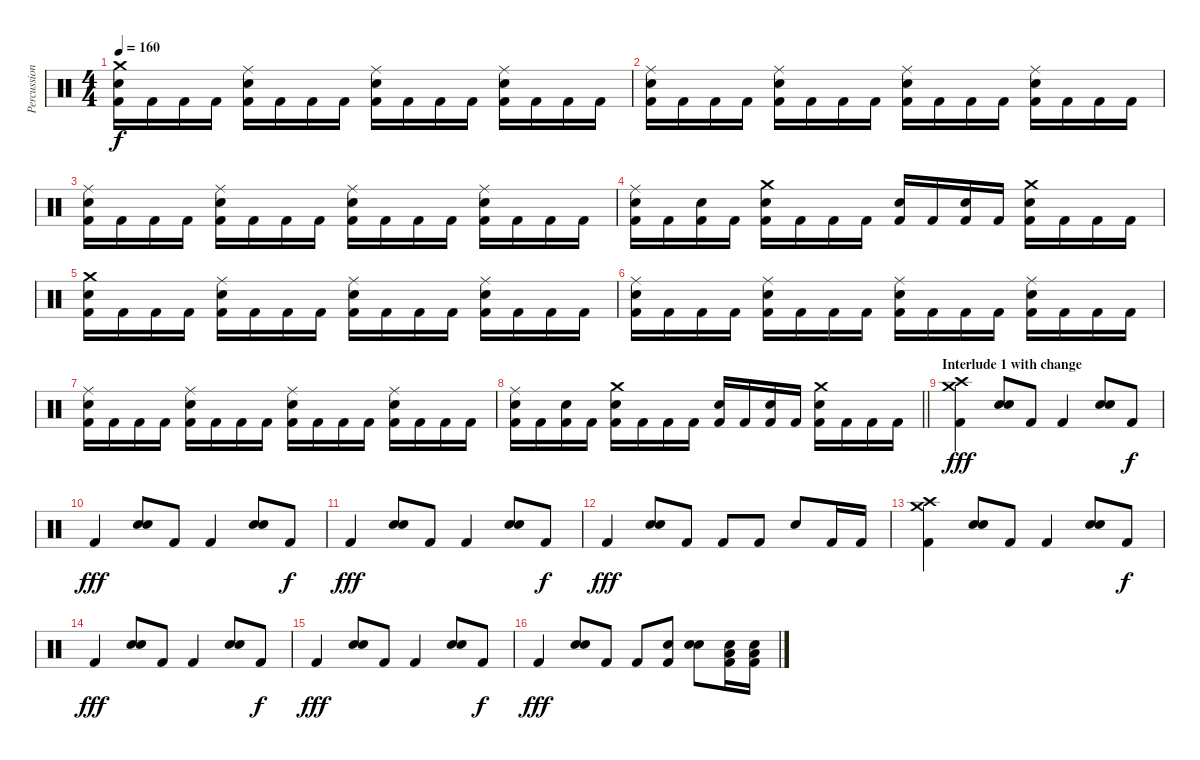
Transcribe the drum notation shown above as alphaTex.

\track ("Percussion" "Percussion") {instrument percussion}
\staff {score}
\articulation defaults
\ts (4 4)
\tempo 160
\clef neutral
\ks c
("Crash medium (hit)" "Snare (hit) 2" "Kick (hit) 2").16{dy f} "Kick (hit) 2".16 "Kick (hit) 2".16 "Kick (hit) 2".16 ("Ride (middle)" "Snare (hit) 2" "Kick (hit) 2").16 "Kick (hit) 2".16 "Kick (hit) 2".16 "Kick (hit) 2".16 ("Ride (middle)" "Snare (hit) 2" "Kick (hit) 2").16 "Kick (hit) 2".16 "Kick (hit) 2".16 "Kick (hit) 2".16 ("Ride (middle)" "Snare (hit) 2" "Kick (hit) 2").16 "Kick (hit) 2".16 "Kick (hit) 2".16 "Kick (hit) 2".16 |
("Ride (middle)" "Snare (hit) 2" "Kick (hit) 2").16 "Kick (hit) 2".16 "Kick (hit) 2".16 "Kick (hit) 2".16 ("Ride (middle)" "Snare (hit) 2" "Kick (hit) 2").16 "Kick (hit) 2".16 "Kick (hit) 2".16 "Kick (hit) 2".16 ("Ride (middle)" "Snare (hit) 2" "Kick (hit) 2").16 "Kick (hit) 2".16 "Kick (hit) 2".16 "Kick (hit) 2".16 ("Ride (middle)" "Snare (hit) 2" "Kick (hit) 2").16 "Kick (hit) 2".16 "Kick (hit) 2".16 "Kick (hit) 2".16 |
("Ride (middle)" "Snare (hit) 2" "Kick (hit) 2").16 "Kick (hit) 2".16 "Kick (hit) 2".16 "Kick (hit) 2".16 ("Ride (middle)" "Snare (hit) 2" "Kick (hit) 2").16 "Kick (hit) 2".16 "Kick (hit) 2".16 "Kick (hit) 2".16 ("Ride (middle)" "Snare (hit) 2" "Kick (hit) 2").16 "Kick (hit) 2".16 "Kick (hit) 2".16 "Kick (hit) 2".16 ("Ride (middle)" "Snare (hit) 2" "Kick (hit) 2").16 "Kick (hit) 2".16 "Kick (hit) 2".16 "Kick (hit) 2".16 |
("Ride (middle)" "Snare (hit) 2" "Kick (hit) 2").16 "Kick (hit) 2".16 ("Snare (hit) 2" "Kick (hit) 2").16 "Kick (hit) 2".16 ("Crash medium (hit)" "Snare (hit) 2" "Kick (hit) 2").16 "Kick (hit) 2".16 "Kick (hit) 2".16 "Kick (hit) 2".16 ("Snare (hit) 2" "Kick (hit) 2").16 "Kick (hit) 2".16 ("Snare (hit) 2" "Kick (hit) 2").16 "Kick (hit) 2".16 ("Crash medium (hit)" "Snare (hit) 2" "Kick (hit) 2").16 "Kick (hit) 2".16 "Kick (hit) 2".16 "Kick (hit) 2".16 |
("Crash medium (hit)" "Snare (hit) 2" "Kick (hit) 2").16 "Kick (hit) 2".16 "Kick (hit) 2".16 "Kick (hit) 2".16 ("Ride (middle)" "Snare (hit) 2" "Kick (hit) 2").16 "Kick (hit) 2".16 "Kick (hit) 2".16 "Kick (hit) 2".16 ("Ride (middle)" "Snare (hit) 2" "Kick (hit) 2").16 "Kick (hit) 2".16 "Kick (hit) 2".16 "Kick (hit) 2".16 ("Ride (middle)" "Snare (hit) 2" "Kick (hit) 2").16 "Kick (hit) 2".16 "Kick (hit) 2".16 "Kick (hit) 2".16 |
("Ride (middle)" "Snare (hit) 2" "Kick (hit) 2").16 "Kick (hit) 2".16 "Kick (hit) 2".16 "Kick (hit) 2".16 ("Ride (middle)" "Snare (hit) 2" "Kick (hit) 2").16 "Kick (hit) 2".16 "Kick (hit) 2".16 "Kick (hit) 2".16 ("Ride (middle)" "Snare (hit) 2" "Kick (hit) 2").16 "Kick (hit) 2".16 "Kick (hit) 2".16 "Kick (hit) 2".16 ("Ride (middle)" "Snare (hit) 2" "Kick (hit) 2").16 "Kick (hit) 2".16 "Kick (hit) 2".16 "Kick (hit) 2".16 |
("Ride (middle)" "Snare (hit) 2" "Kick (hit) 2").16 "Kick (hit) 2".16 "Kick (hit) 2".16 "Kick (hit) 2".16 ("Ride (middle)" "Snare (hit) 2" "Kick (hit) 2").16 "Kick (hit) 2".16 "Kick (hit) 2".16 "Kick (hit) 2".16 ("Ride (middle)" "Snare (hit) 2" "Kick (hit) 2").16 "Kick (hit) 2".16 "Kick (hit) 2".16 "Kick (hit) 2".16 ("Ride (middle)" "Snare (hit) 2" "Kick (hit) 2").16 "Kick (hit) 2".16 "Kick (hit) 2".16 "Kick (hit) 2".16 |
\barLineRight lightlight
("Ride (middle)" "Snare (hit) 2" "Kick (hit) 2").16 "Kick (hit) 2".16 ("Snare (hit) 2" "Kick (hit) 2").16 "Kick (hit) 2".16 ("Crash medium (hit)" "Snare (hit) 2" "Kick (hit) 2").16 "Kick (hit) 2".16 "Kick (hit) 2".16 "Kick (hit) 2".16 ("Snare (hit) 2" "Kick (hit) 2").16 "Kick (hit) 2".16 ("Snare (hit) 2" "Kick (hit) 2").16 "Kick (hit) 2".16 ("Crash medium (hit)" "Snare (hit) 2" "Kick (hit) 2").16 "Kick (hit) 2".16 "Kick (hit) 2".16 "Kick (hit) 2".16 |
\section ("" "Interlude 1 with change")
("Crash high (hit)" "Kick (hit) 2" "Crash medium (hit)").4{dy fff} ("Snare (hit) 2" "Electric Snare (hit)").8 "Kick (hit) 2".8 "Kick (hit) 2".4 ("Snare (hit) 2" "Electric Snare (hit)").8 "Kick (hit) 2".8{dy f} |
"Kick (hit) 2".4{dy fff} ("Snare (hit) 2" "Electric Snare (hit)").8 "Kick (hit) 2".8 "Kick (hit) 2".4 ("Snare (hit) 2" "Electric Snare (hit)").8 "Kick (hit) 2".8{dy f} |
"Kick (hit) 2".4{dy fff} ("Snare (hit) 2" "Electric Snare (hit)").8 "Kick (hit) 2".8 "Kick (hit) 2".4 ("Snare (hit) 2" "Electric Snare (hit)").8 "Kick (hit) 2".8{dy f} |
"Kick (hit) 2".4{dy fff} ("Snare (hit) 2" "Electric Snare (hit)").8 "Kick (hit) 2".8 "Kick (hit) 2".8 "Kick (hit) 2".8 "Snare (hit) 2".8 "Kick (hit) 2".16 "Kick (hit) 2".16 |
("Crash high (hit)" "Kick (hit) 2" "Crash medium (hit)").4 ("Snare (hit) 2" "Electric Snare (hit)").8 "Kick (hit) 2".8 "Kick (hit) 2".4 ("Snare (hit) 2" "Electric Snare (hit)").8 "Kick (hit) 2".8{dy f} |
"Kick (hit) 2".4{dy fff} ("Snare (hit) 2" "Electric Snare (hit)").8 "Kick (hit) 2".8 "Kick (hit) 2".4 ("Snare (hit) 2" "Electric Snare (hit)").8 "Kick (hit) 2".8{dy f} |
"Kick (hit) 2".4{dy fff} ("Snare (hit) 2" "Electric Snare (hit)").8 "Kick (hit) 2".8 "Kick (hit) 2".4 ("Snare (hit) 2" "Electric Snare (hit)").8 "Kick (hit) 2".8{dy f} |
"Kick (hit) 2".4{dy fff} ("Snare (hit) 2" "Electric Snare (hit)").8 "Kick (hit) 2".8 "Kick (hit) 2".8 ("Kick (hit) 2" "Snare (hit) 2").8 ("Snare (hit) 2" "Snare (hit) 2").8 ("Kick (hit) 2" "Snare (hit) 2" "Low Floor Tom (hit)").16 ("Kick (hit) 2" "Snare (hit) 2" "Low Floor Tom (hit)").16
